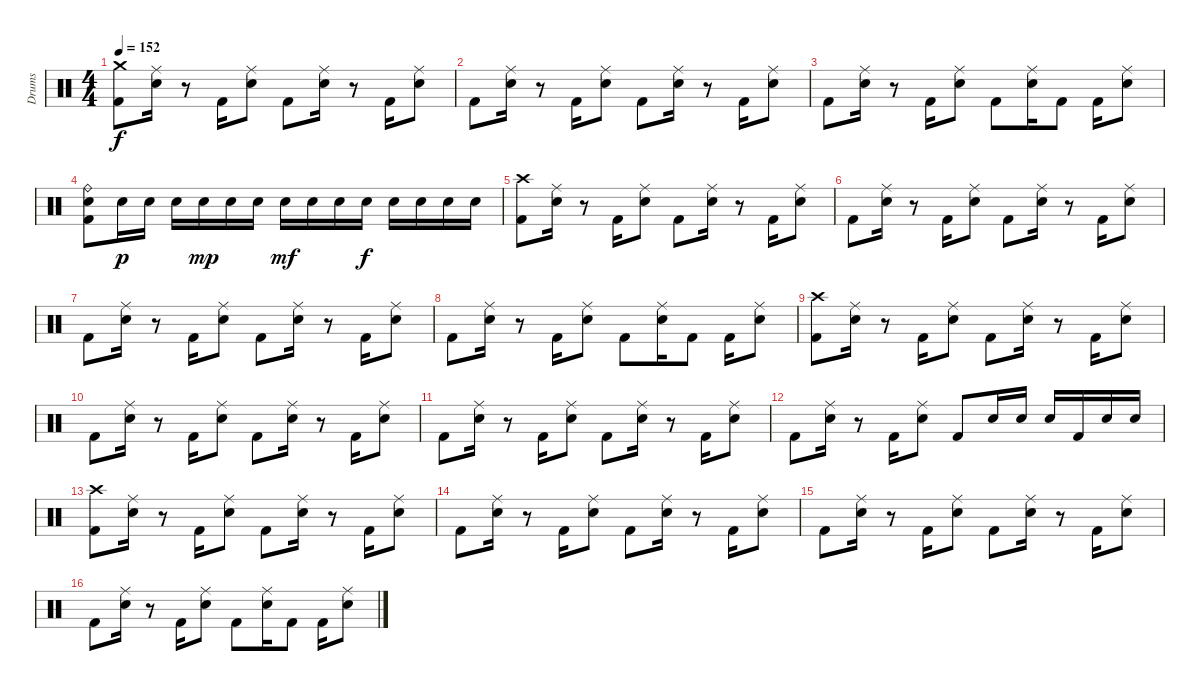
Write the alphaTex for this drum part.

\track ("Drums" "Drums") {instrument percussion}
\staff {score}
\articulation defaults
\ts (4 4)
\tempo 152
\clef neutral
\ks c
("Crash medium (hit)" "Kick (hit) 2").8{dy f} ("Ride (middle)" "Snare (hit) 2").16 r.8 "Kick (hit) 2".16 ("Ride (middle)" "Snare (hit) 2").8 "Kick (hit) 2".8 ("Ride (middle)" "Snare (hit) 2").16 r.8 "Kick (hit) 2".16 ("Ride (middle)" "Snare (hit) 2").8 |
"Kick (hit) 2".8 ("Ride (middle)" "Snare (hit) 2").16 r.8 "Kick (hit) 2".16 ("Ride (middle)" "Snare (hit) 2").8 "Kick (hit) 2".8 ("Ride (middle)" "Snare (hit) 2").16 r.8 "Kick (hit) 2".16 ("Ride (middle)" "Snare (hit) 2").8 |
"Kick (hit) 2".8 ("Ride (middle)" "Snare (hit) 2").16 r.8 "Kick (hit) 2".16 ("Ride (middle)" "Snare (hit) 2").8 "Kick (hit) 2".8 ("Ride (middle)" "Snare (hit) 2").16 "Kick (hit) 2".8 "Kick (hit) 2".16 ("Ride (middle)" "Snare (hit) 2").8 |
("Ride (bell)" "Snare (hit) 2" "Kick (hit) 2").8 "Snare (hit) 2".16{dy p} "Snare (hit) 2".16 "Snare (hit) 2".16 "Snare (hit) 2".16{dy mp} "Snare (hit) 2".16 "Snare (hit) 2".16 "Snare (hit) 2".16{dy mf} "Snare (hit) 2".16 "Snare (hit) 2".16 "Snare (hit) 2".16{dy f} "Snare (hit) 2".16 "Snare (hit) 2".16 "Snare (hit) 2".16 "Snare (hit) 2".16 |
("Crash high (hit)" "Kick (hit) 2").8 ("Ride (middle)" "Snare (hit) 2").16 r.8 "Kick (hit) 2".16 ("Ride (middle)" "Snare (hit) 2").8 "Kick (hit) 2".8 ("Ride (middle)" "Snare (hit) 2").16 r.8 "Kick (hit) 2".16 ("Ride (middle)" "Snare (hit) 2").8 |
"Kick (hit) 2".8 ("Ride (middle)" "Snare (hit) 2").16 r.8 "Kick (hit) 2".16 ("Ride (middle)" "Snare (hit) 2").8 "Kick (hit) 2".8 ("Ride (middle)" "Snare (hit) 2").16 r.8 "Kick (hit) 2".16 ("Ride (middle)" "Snare (hit) 2").8 |
"Kick (hit) 2".8 ("Ride (middle)" "Snare (hit) 2").16 r.8 "Kick (hit) 2".16 ("Ride (middle)" "Snare (hit) 2").8 "Kick (hit) 2".8 ("Ride (middle)" "Snare (hit) 2").16 r.8 "Kick (hit) 2".16 ("Ride (middle)" "Snare (hit) 2").8 |
"Kick (hit) 2".8 ("Ride (middle)" "Snare (hit) 2").16 r.8 "Kick (hit) 2".16 ("Ride (middle)" "Snare (hit) 2").8 "Kick (hit) 2".8 ("Ride (middle)" "Snare (hit) 2").16 "Kick (hit) 2".8 "Kick (hit) 2".16 ("Ride (middle)" "Snare (hit) 2").8 |
("Crash high (hit)" "Kick (hit) 2").8 ("Ride (middle)" "Snare (hit) 2").16 r.8 "Kick (hit) 2".16 ("Ride (middle)" "Snare (hit) 2").8 "Kick (hit) 2".8 ("Ride (middle)" "Snare (hit) 2").16 r.8 "Kick (hit) 2".16 ("Ride (middle)" "Snare (hit) 2").8 |
"Kick (hit) 2".8 ("Ride (middle)" "Snare (hit) 2").16 r.8 "Kick (hit) 2".16 ("Ride (middle)" "Snare (hit) 2").8 "Kick (hit) 2".8 ("Ride (middle)" "Snare (hit) 2").16 r.8 "Kick (hit) 2".16 ("Ride (middle)" "Snare (hit) 2").8 |
"Kick (hit) 2".8 ("Ride (middle)" "Snare (hit) 2").16 r.8 "Kick (hit) 2".16 ("Ride (middle)" "Snare (hit) 2").8 "Kick (hit) 2".8 ("Ride (middle)" "Snare (hit) 2").16 r.8 "Kick (hit) 2".16 ("Ride (middle)" "Snare (hit) 2").8 |
"Kick (hit) 2".8 ("Ride (middle)" "Snare (hit) 2").16 r.8 "Kick (hit) 2".16 ("Ride (middle)" "Snare (hit) 2").8 "Kick (hit) 2".8 "Snare (hit) 2".16 "Snare (hit) 2".16 "Snare (hit) 2".16 "Kick (hit) 2".16 "Snare (hit) 2".16 "Snare (hit) 2".16 |
("Crash high (hit)" "Kick (hit) 2").8 ("Ride (middle)" "Snare (hit) 2").16 r.8 "Kick (hit) 2".16 ("Ride (middle)" "Snare (hit) 2").8 "Kick (hit) 2".8 ("Ride (middle)" "Snare (hit) 2").16 r.8 "Kick (hit) 2".16 ("Ride (middle)" "Snare (hit) 2").8 |
"Kick (hit) 2".8 ("Ride (middle)" "Snare (hit) 2").16 r.8 "Kick (hit) 2".16 ("Ride (middle)" "Snare (hit) 2").8 "Kick (hit) 2".8 ("Ride (middle)" "Snare (hit) 2").16 r.8 "Kick (hit) 2".16 ("Ride (middle)" "Snare (hit) 2").8 |
"Kick (hit) 2".8 ("Ride (middle)" "Snare (hit) 2").16 r.8 "Kick (hit) 2".16 ("Ride (middle)" "Snare (hit) 2").8 "Kick (hit) 2".8 ("Ride (middle)" "Snare (hit) 2").16 r.8 "Kick (hit) 2".16 ("Ride (middle)" "Snare (hit) 2").8 |
"Kick (hit) 2".8 ("Ride (middle)" "Snare (hit) 2").16 r.8 "Kick (hit) 2".16 ("Ride (middle)" "Snare (hit) 2").8 "Kick (hit) 2".8 ("Ride (middle)" "Snare (hit) 2").16 "Kick (hit) 2".8 "Kick (hit) 2".16 ("Ride (middle)" "Snare (hit) 2").8
